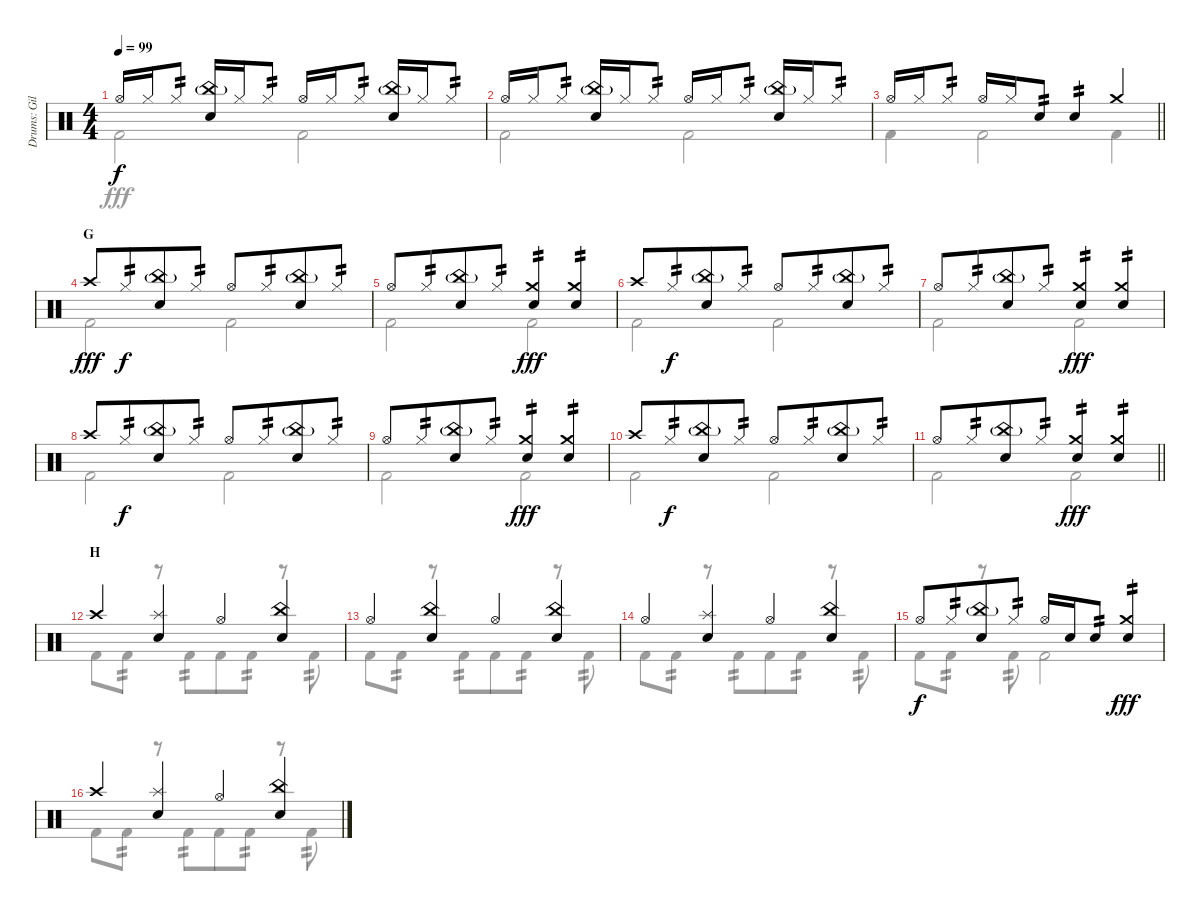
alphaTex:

\track ("Drums: Gil" "Drums: Gil") {instrument percussion}
\staff {score}
\articulation defaults
\voice
\ts (4 4)
\tempo 99
\clef neutral
\ks c "Hi-Hat (open)".16{dy f} "Hi-Hat (closed)".16 "Hi-Hat (closed)".8{tp 2}
("China (hit)"{g} "Snare (hit) 2").16 "Hi-Hat (closed)".16 "Hi-Hat (closed)".8{tp 2} "Hi-Hat (open)".16 "Hi-Hat (closed)".16 "Hi-Hat (closed)".8{tp 2} ("China (hit)"{g} "Snare (hit) 2").16 "Hi-Hat (closed)".16 "Hi-Hat (closed)".8{tp 2} |
"Hi-Hat (open)".16 "Hi-Hat (closed)".16 "Hi-Hat (closed)".8{tp 2} ("China (hit)"{g} "Snare (hit) 2").16 "Hi-Hat (closed)".16 "Hi-Hat (closed)".8{tp 2} "Hi-Hat (open)".16 "Hi-Hat (closed)".16 "Hi-Hat (closed)".8{tp 2} ("China (hit)"{g} "Snare (hit) 2").16 "Hi-Hat (closed)".16 "Hi-Hat (closed)".8{tp 2} |
\barLineRight lightlight "Hi-Hat (open)".16 "Hi-Hat (closed)".16 "Hi-Hat (closed)".8{tp 2} "Hi-Hat (open)".16 "Hi-Hat (closed)".16 "Snare (hit) 2".8{tp 2} "Snare (hit) 2".4{tp 2} "Crash medium (hit)".4
|
\section ("" "G")
"Crash high (hit)".8{dy fff} "Hi-Hat (closed)".8{tp 2 dy f beam merge} ("China (hit)"{g} "Snare (hit) 2").8 "Hi-Hat (closed)".8{tp 2} "Hi-Hat (open)".8 "Hi-Hat (closed)".8{tp 2 beam merge} ("China (hit)"{g} "Snare (hit) 2").8 "Hi-Hat (closed)".8{tp 2} |
"Hi-Hat (open)".8 "Hi-Hat (closed)".8{tp 2 beam merge} ("China (hit)"{g} "Snare (hit) 2").8 "Hi-Hat (closed)".8{tp 2} ("Crash medium (hit)" "Snare (hit) 2").4{tp 2 dy fff} ("Crash medium (hit)" "Snare (hit) 2").4{tp 2} |
"Crash high (hit)".8 "Hi-Hat (closed)".8{tp 2 dy f beam merge} ("China (hit)"{g} "Snare (hit) 2").8 "Hi-Hat (closed)".8{tp 2} "Hi-Hat (open)".8 "Hi-Hat (closed)".8{tp 2 beam merge} ("China (hit)"{g} "Snare (hit) 2").8 "Hi-Hat (closed)".8{tp 2} |
"Hi-Hat (open)".8 "Hi-Hat (closed)".8{tp 2 beam merge} ("China (hit)"{g} "Snare (hit) 2").8 "Hi-Hat (closed)".8{tp 2} ("Crash medium (hit)" "Snare (hit) 2").4{tp 2 dy fff} ("Crash medium (hit)" "Snare (hit) 2").4{tp 2} |
"Crash high (hit)".8 "Hi-Hat (closed)".8{tp 2 dy f beam merge} ("China (hit)"{g} "Snare (hit) 2").8 "Hi-Hat (closed)".8{tp 2} "Hi-Hat (open)".8 "Hi-Hat (closed)".8{tp 2 beam merge} ("China (hit)"{g} "Snare (hit) 2").8 "Hi-Hat (closed)".8{tp 2} |
"Hi-Hat (open)".8 "Hi-Hat (closed)".8{tp 2 beam merge} ("China (hit)"{g} "Snare (hit) 2").8 "Hi-Hat (closed)".8{tp 2} ("Crash medium (hit)" "Snare (hit) 2").4{tp 2 dy fff} ("Crash medium (hit)" "Snare (hit) 2").4{tp 2} |
"Crash high (hit)".8 "Hi-Hat (closed)".8{tp 2 dy f beam merge} ("China (hit)"{g} "Snare (hit) 2").8 "Hi-Hat (closed)".8{tp 2} "Hi-Hat (open)".8 "Hi-Hat (closed)".8{tp 2 beam merge} ("China (hit)"{g} "Snare (hit) 2").8 "Hi-Hat (closed)".8{tp 2} |
\barLineRight lightlight "Hi-Hat (open)".8 "Hi-Hat (closed)".8{tp 2 beam merge}
("China (hit)"{g} "Snare (hit) 2").8 "Hi-Hat (closed)".8{tp 2} ("Crash medium (hit)" "Snare (hit) 2").4{tp 2 dy fff} ("Crash medium (hit)" "Snare (hit) 2").4{tp 2} |
\section ("" "H")
"Crash high (hit)".4 ("Splash (hit)" "Snare (hit) 2").4 "Hi-Hat (open)".4 ("China (hit)" "Snare (hit) 2").4 |
"Hi-Hat (open)".4 ("China (hit)" "Snare (hit) 2").4 "Hi-Hat (open)".4 ("China (hit)" "Snare (hit) 2").4 |
"Hi-Hat (open)".4 ("Splash (hit)" "Snare (hit) 2").4 "Hi-Hat (open)".4 ("China (hit)" "Snare (hit) 2").4 |
"Hi-Hat (open)".8{dy f beam merge} "Hi-Hat (closed)".8{tp 2 beam merge} ("China (hit)"{g} "Snare (hit) 2").8{beam merge} "Hi-Hat (closed)".8{tp 2} "Hi-Hat (open)".16 "Snare (hit) 2".16 "Snare (hit) 2".8{tp 2} ("Crash medium (hit)" "Snare (hit) 2").4{tp 2 dy fff} |
"Crash high (hit)".4 ("Splash (hit)" "Snare (hit) 2").4 "Hi-Hat (open)".4 ("China (hit)" "Snare (hit) 2").4
\voice
\clef neutral
\ottava regular
\simile none
\ks c "Kick (hit) 2".2{dy fff} "Kick (hit) 2".2
|
"Kick (hit) 2".2 "Kick (hit) 2".2 |
\barLineRight lightlight "Kick (hit) 2".4 "Kick (hit) 2".2 "Kick (hit) 2".4
|
"Kick (hit) 2".2 "Kick (hit) 2".2 |
"Kick (hit) 2".2 "Kick (hit) 2".2 |
"Kick (hit) 2".2 "Kick (hit) 2".2 |
"Kick (hit) 2".2 "Kick (hit) 2".2 |
"Kick (hit) 2".2 "Kick (hit) 2".2 |
"Kick (hit) 2".2 "Kick (hit) 2".2 |
"Kick (hit) 2".2 "Kick (hit) 2".2 |
\barLineRight lightlight "Kick (hit) 2".2 "Kick (hit) 2".2
|
"Kick (hit) 2".8 "Kick (hit) 2".8{tp 2} r.8 "Kick (hit) 2".8{tp 2 beam merge} "Kick (hit) 2".8 "Kick (hit) 2".8{tp 2} r.8 "Kick (hit) 2".8{tp 2} |
"Kick (hit) 2".8 "Kick (hit) 2".8{tp 2} r.8 "Kick (hit) 2".8{tp 2 beam merge} "Kick (hit) 2".8 "Kick (hit) 2".8{tp 2} r.8 "Kick (hit) 2".8{tp 2} |
"Kick (hit) 2".8 "Kick (hit) 2".8{tp 2} r.8 "Kick (hit) 2".8{tp 2 beam merge} "Kick (hit) 2".8 "Kick (hit) 2".8{tp 2} r.8 "Kick (hit) 2".8{tp 2} |
"Kick (hit) 2".8 "Kick (hit) 2".8{tp 2} r.8 "Kick (hit) 2".8{tp 2} "Kick (hit) 2".2 |
"Kick (hit) 2".8 "Kick (hit) 2".8{tp 2} r.8 "Kick (hit) 2".8{tp 2 beam merge} "Kick (hit) 2".8 "Kick (hit) 2".8{tp 2} r.8 "Kick (hit) 2".8{tp 2}
